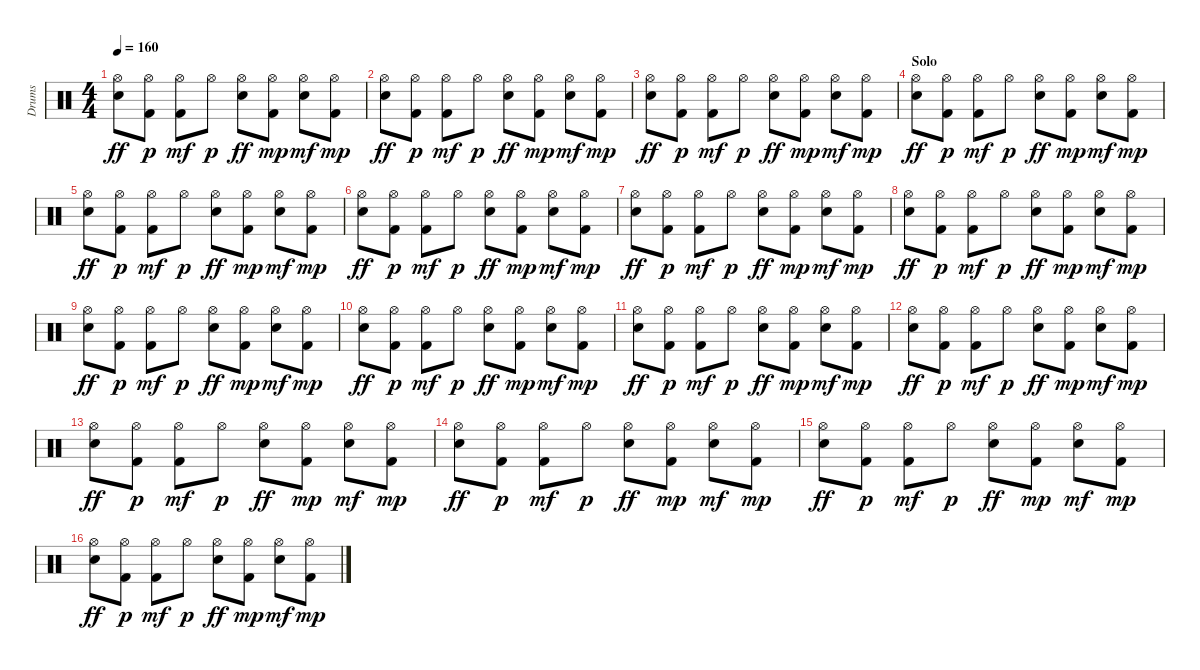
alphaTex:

\track ("Drums" "Drums") {instrument percussion}
\staff {score}
\articulation defaults
\ts (4 4)
\tempo 160
\clef neutral
\ks c
("Electric Snare (hit)" "Hi-Hat (open)").8{dy ff} ("Kick (hit) 2" "Hi-Hat (open)").8{dy p} ("Kick (hit) 2" "Hi-Hat (open)").8{dy mf} "Hi-Hat (open)".8{dy p} ("Electric Snare (hit)" "Hi-Hat (open)").8{dy ff} ("Kick (hit) 2" "Hi-Hat (open)").8{dy mp} ("Electric Snare (hit)" "Hi-Hat (open)").8{dy mf} ("Kick (hit) 2" "Hi-Hat (open)").8{dy mp} |
("Electric Snare (hit)" "Hi-Hat (open)").8{dy ff} ("Kick (hit) 2" "Hi-Hat (open)").8{dy p} ("Kick (hit) 2" "Hi-Hat (open)").8{dy mf} "Hi-Hat (open)".8{dy p} ("Electric Snare (hit)" "Hi-Hat (open)").8{dy ff} ("Kick (hit) 2" "Hi-Hat (open)").8{dy mp} ("Electric Snare (hit)" "Hi-Hat (open)").8{dy mf} ("Kick (hit) 2" "Hi-Hat (open)").8{dy mp} |
("Electric Snare (hit)" "Hi-Hat (open)").8{dy ff} ("Kick (hit) 2" "Hi-Hat (open)").8{dy p} ("Kick (hit) 2" "Hi-Hat (open)").8{dy mf} "Hi-Hat (open)".8{dy p} ("Electric Snare (hit)" "Hi-Hat (open)").8{dy ff} ("Kick (hit) 2" "Hi-Hat (open)").8{dy mp} ("Electric Snare (hit)" "Hi-Hat (open)").8{dy mf} ("Kick (hit) 2" "Hi-Hat (open)").8{dy mp} |
\section ("" "Solo")
("Electric Snare (hit)" "Hi-Hat (open)").8{dy ff} ("Kick (hit) 2" "Hi-Hat (open)").8{dy p} ("Kick (hit) 2" "Hi-Hat (open)").8{dy mf} "Hi-Hat (open)".8{dy p} ("Electric Snare (hit)" "Hi-Hat (open)").8{dy ff} ("Kick (hit) 2" "Hi-Hat (open)").8{dy mp} ("Electric Snare (hit)" "Hi-Hat (open)").8{dy mf} ("Kick (hit) 2" "Hi-Hat (open)").8{dy mp} |
("Electric Snare (hit)" "Hi-Hat (open)").8{dy ff} ("Kick (hit) 2" "Hi-Hat (open)").8{dy p} ("Kick (hit) 2" "Hi-Hat (open)").8{dy mf} "Hi-Hat (open)".8{dy p} ("Electric Snare (hit)" "Hi-Hat (open)").8{dy ff} ("Kick (hit) 2" "Hi-Hat (open)").8{dy mp} ("Electric Snare (hit)" "Hi-Hat (open)").8{dy mf} ("Kick (hit) 2" "Hi-Hat (open)").8{dy mp} |
("Electric Snare (hit)" "Hi-Hat (open)").8{dy ff} ("Kick (hit) 2" "Hi-Hat (open)").8{dy p} ("Kick (hit) 2" "Hi-Hat (open)").8{dy mf} "Hi-Hat (open)".8{dy p} ("Electric Snare (hit)" "Hi-Hat (open)").8{dy ff} ("Kick (hit) 2" "Hi-Hat (open)").8{dy mp} ("Electric Snare (hit)" "Hi-Hat (open)").8{dy mf} ("Kick (hit) 2" "Hi-Hat (open)").8{dy mp} |
("Electric Snare (hit)" "Hi-Hat (open)").8{dy ff} ("Kick (hit) 2" "Hi-Hat (open)").8{dy p} ("Kick (hit) 2" "Hi-Hat (open)").8{dy mf} "Hi-Hat (open)".8{dy p} ("Electric Snare (hit)" "Hi-Hat (open)").8{dy ff} ("Kick (hit) 2" "Hi-Hat (open)").8{dy mp} ("Electric Snare (hit)" "Hi-Hat (open)").8{dy mf} ("Kick (hit) 2" "Hi-Hat (open)").8{dy mp} |
("Electric Snare (hit)" "Hi-Hat (open)").8{dy ff} ("Kick (hit) 2" "Hi-Hat (open)").8{dy p} ("Kick (hit) 2" "Hi-Hat (open)").8{dy mf} "Hi-Hat (open)".8{dy p} ("Electric Snare (hit)" "Hi-Hat (open)").8{dy ff} ("Kick (hit) 2" "Hi-Hat (open)").8{dy mp} ("Electric Snare (hit)" "Hi-Hat (open)").8{dy mf} ("Kick (hit) 2" "Hi-Hat (open)").8{dy mp} |
("Electric Snare (hit)" "Hi-Hat (open)").8{dy ff} ("Kick (hit) 2" "Hi-Hat (open)").8{dy p} ("Kick (hit) 2" "Hi-Hat (open)").8{dy mf} "Hi-Hat (open)".8{dy p} ("Electric Snare (hit)" "Hi-Hat (open)").8{dy ff} ("Kick (hit) 2" "Hi-Hat (open)").8{dy mp} ("Electric Snare (hit)" "Hi-Hat (open)").8{dy mf} ("Kick (hit) 2" "Hi-Hat (open)").8{dy mp} |
("Electric Snare (hit)" "Hi-Hat (open)").8{dy ff} ("Kick (hit) 2" "Hi-Hat (open)").8{dy p} ("Kick (hit) 2" "Hi-Hat (open)").8{dy mf} "Hi-Hat (open)".8{dy p} ("Electric Snare (hit)" "Hi-Hat (open)").8{dy ff} ("Kick (hit) 2" "Hi-Hat (open)").8{dy mp} ("Electric Snare (hit)" "Hi-Hat (open)").8{dy mf} ("Kick (hit) 2" "Hi-Hat (open)").8{dy mp} |
("Electric Snare (hit)" "Hi-Hat (open)").8{dy ff} ("Kick (hit) 2" "Hi-Hat (open)").8{dy p} ("Kick (hit) 2" "Hi-Hat (open)").8{dy mf} "Hi-Hat (open)".8{dy p} ("Electric Snare (hit)" "Hi-Hat (open)").8{dy ff} ("Kick (hit) 2" "Hi-Hat (open)").8{dy mp} ("Electric Snare (hit)" "Hi-Hat (open)").8{dy mf} ("Kick (hit) 2" "Hi-Hat (open)").8{dy mp} |
("Electric Snare (hit)" "Hi-Hat (open)").8{dy ff} ("Kick (hit) 2" "Hi-Hat (open)").8{dy p} ("Kick (hit) 2" "Hi-Hat (open)").8{dy mf} "Hi-Hat (open)".8{dy p} ("Electric Snare (hit)" "Hi-Hat (open)").8{dy ff} ("Kick (hit) 2" "Hi-Hat (open)").8{dy mp} ("Electric Snare (hit)" "Hi-Hat (open)").8{dy mf} ("Kick (hit) 2" "Hi-Hat (open)").8{dy mp} |
("Electric Snare (hit)" "Hi-Hat (open)").8{dy ff} ("Kick (hit) 2" "Hi-Hat (open)").8{dy p} ("Kick (hit) 2" "Hi-Hat (open)").8{dy mf} "Hi-Hat (open)".8{dy p} ("Electric Snare (hit)" "Hi-Hat (open)").8{dy ff} ("Kick (hit) 2" "Hi-Hat (open)").8{dy mp} ("Electric Snare (hit)" "Hi-Hat (open)").8{dy mf} ("Kick (hit) 2" "Hi-Hat (open)").8{dy mp} |
("Electric Snare (hit)" "Hi-Hat (open)").8{dy ff} ("Kick (hit) 2" "Hi-Hat (open)").8{dy p} ("Kick (hit) 2" "Hi-Hat (open)").8{dy mf} "Hi-Hat (open)".8{dy p} ("Electric Snare (hit)" "Hi-Hat (open)").8{dy ff} ("Kick (hit) 2" "Hi-Hat (open)").8{dy mp} ("Electric Snare (hit)" "Hi-Hat (open)").8{dy mf} ("Kick (hit) 2" "Hi-Hat (open)").8{dy mp} |
("Electric Snare (hit)" "Hi-Hat (open)").8{dy ff} ("Kick (hit) 2" "Hi-Hat (open)").8{dy p} ("Kick (hit) 2" "Hi-Hat (open)").8{dy mf} "Hi-Hat (open)".8{dy p} ("Electric Snare (hit)" "Hi-Hat (open)").8{dy ff} ("Kick (hit) 2" "Hi-Hat (open)").8{dy mp} ("Electric Snare (hit)" "Hi-Hat (open)").8{dy mf} ("Kick (hit) 2" "Hi-Hat (open)").8{dy mp} |
("Electric Snare (hit)" "Hi-Hat (open)").8{dy ff} ("Kick (hit) 2" "Hi-Hat (open)").8{dy p} ("Kick (hit) 2" "Hi-Hat (open)").8{dy mf} "Hi-Hat (open)".8{dy p} ("Electric Snare (hit)" "Hi-Hat (open)").8{dy ff} ("Kick (hit) 2" "Hi-Hat (open)").8{dy mp} ("Electric Snare (hit)" "Hi-Hat (open)").8{dy mf} ("Kick (hit) 2" "Hi-Hat (open)").8{dy mp}
